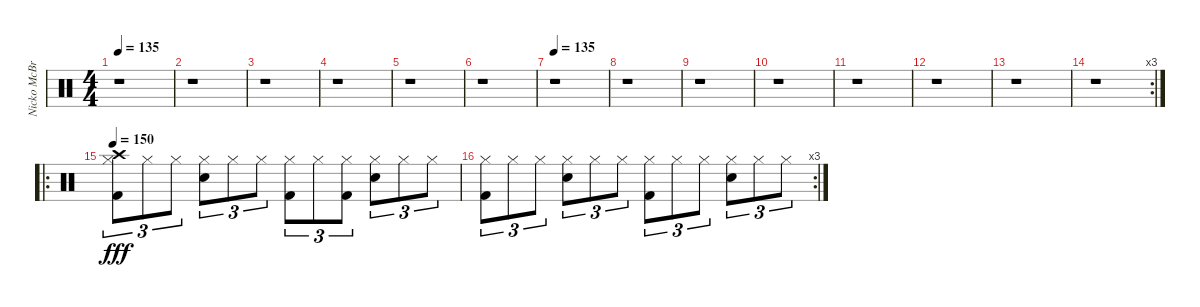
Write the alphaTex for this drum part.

\track ("Nicko McBrain" "Nicko McBr") {instrument percussion}
\staff {score}
\articulation defaults
\ts (4 4)
\tempo 135
\clef neutral
\ks c
r.1{dy fff} |
r.1 |
r.1 |
r.1 |
r.1 |
r.1 |
\tempo 135
r.1 |
r.1 |
r.1 |
r.1 |
r.1 |
r.1 |
r.1 |
\rc 3
r.1 |
\ro
\tempo 150
("Hi-Hat (closed)" "Kick (hit) 2" "Crash high (hit)").8{tu (3 2)} "Hi-Hat (closed)".8{tu (3 2)} "Hi-Hat (closed)".8{tu (3 2)} ("Hi-Hat (closed)" "Snare (hit) 2").8{tu (3 2)} "Hi-Hat (closed)".8{tu (3 2)} "Hi-Hat (closed)".8{tu (3 2)} ("Hi-Hat (closed)" "Kick (hit) 2").8{tu (3 2)} "Hi-Hat (closed)".8{tu (3 2)} ("Hi-Hat (closed)" "Kick (hit) 2").8{tu (3 2)} ("Hi-Hat (closed)" "Snare (hit) 2").8{tu (3 2)} "Hi-Hat (closed)".8{tu (3 2)} "Hi-Hat (closed)".8{tu (3 2)} |
\rc 3
("Hi-Hat (closed)" "Kick (hit) 2").8{tu (3 2)} "Hi-Hat (closed)".8{tu (3 2)} "Hi-Hat (closed)".8{tu (3 2)} ("Hi-Hat (closed)" "Snare (hit) 2").8{tu (3 2)} "Hi-Hat (closed)".8{tu (3 2)} "Hi-Hat (closed)".8{tu (3 2)} ("Hi-Hat (closed)" "Kick (hit) 2").8{tu (3 2)} "Hi-Hat (closed)".8{tu (3 2)} "Hi-Hat (closed)".8{tu (3 2)} ("Hi-Hat (closed)" "Snare (hit) 2").8{tu (3 2)} "Hi-Hat (closed)".8{tu (3 2)} "Hi-Hat (closed)".8{tu (3 2)}
